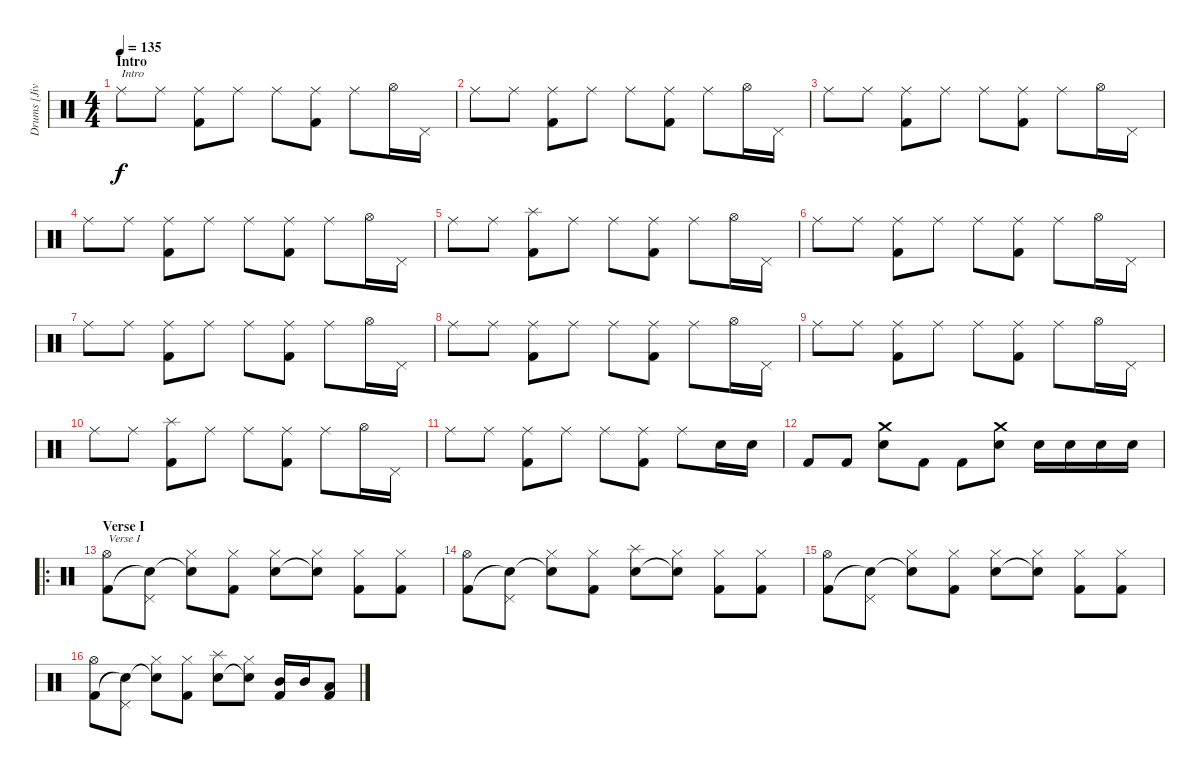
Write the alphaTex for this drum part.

\track ("Drums [Jivarp]" "Drums [Jiv") {instrument percussion}
\staff {score}
\articulation defaults
\ts (4 4)
\section ("" "Intro")
\tempo 135
\clef neutral
\ks c "Ride (middle)".8{txt "Intro" dy f} "Ride (middle)".8
("Ride (middle)" "Kick (hit) 2").8 "Ride (middle)".8 "Ride (middle)".8 ("Ride (middle)" "Kick (hit) 2").8 "Ride (middle)".8 "Hi-Hat (open)".16 "Pedal Hi-Hat (hit)".16 |
"Ride (middle)".8 "Ride (middle)".8 ("Ride (middle)" "Kick (hit) 2").8 "Ride (middle)".8 "Ride (middle)".8 ("Ride (middle)" "Kick (hit) 2").8 "Ride (middle)".8 "Hi-Hat (open)".16 "Pedal Hi-Hat (hit)".16 |
"Ride (middle)".8 "Ride (middle)".8 ("Ride (middle)" "Kick (hit) 2").8 "Ride (middle)".8 "Ride (middle)".8 ("Ride (middle)" "Kick (hit) 2").8 "Ride (middle)".8 "Hi-Hat (open)".16 "Pedal Hi-Hat (hit)".16 |
"Ride (middle)".8 "Ride (middle)".8 ("Ride (middle)" "Kick (hit) 2").8 "Ride (middle)".8 "Ride (middle)".8 ("Ride (middle)" "Kick (hit) 2").8 "Ride (middle)".8 "Hi-Hat (open)".16 "Pedal Hi-Hat (hit)".16 |
"Ride (middle)".8 "Ride (middle)".8 ("Splash (hit)" "Kick (hit) 2").8 "Ride (middle)".8 "Ride (middle)".8 ("Ride (middle)" "Kick (hit) 2").8 "Ride (middle)".8 "Hi-Hat (open)".16 "Pedal Hi-Hat (hit)".16 |
"Ride (middle)".8 "Ride (middle)".8 ("Ride (middle)" "Kick (hit) 2").8 "Ride (middle)".8 "Ride (middle)".8 ("Ride (middle)" "Kick (hit) 2").8 "Ride (middle)".8 "Hi-Hat (open)".16 "Pedal Hi-Hat (hit)".16 |
"Ride (middle)".8 "Ride (middle)".8 ("Ride (middle)" "Kick (hit) 2").8 "Ride (middle)".8 "Ride (middle)".8 ("Ride (middle)" "Kick (hit) 2").8 "Ride (middle)".8 "Hi-Hat (open)".16 "Pedal Hi-Hat (hit)".16 |
"Ride (middle)".8 "Ride (middle)".8 ("Ride (middle)" "Kick (hit) 2").8 "Ride (middle)".8 "Ride (middle)".8 ("Ride (middle)" "Kick (hit) 2").8 "Ride (middle)".8 "Hi-Hat (open)".16 "Pedal Hi-Hat (hit)".16 |
"Ride (middle)".8 "Ride (middle)".8 ("Ride (middle)" "Kick (hit) 2").8 "Ride (middle)".8 "Ride (middle)".8 ("Ride (middle)" "Kick (hit) 2").8 "Ride (middle)".8 "Hi-Hat (open)".16 "Pedal Hi-Hat (hit)".16 |
"Ride (middle)".8 "Ride (middle)".8 ("Splash (hit)" "Kick (hit) 2").8 "Ride (middle)".8 "Ride (middle)".8 ("Ride (middle)" "Kick (hit) 2").8 "Ride (middle)".8 "Hi-Hat (open)".16 "Pedal Hi-Hat (hit)".16 |
"Ride (middle)".8 "Ride (middle)".8 ("Ride (middle)" "Kick (hit) 2").8 "Ride (middle)".8 "Ride (middle)".8 ("Ride (middle)" "Kick (hit) 2").8 "Ride (middle)".8 "Electric Snare (hit)".16 "Electric Snare (hit)".16 |
"Kick (hit) 2".8 "Kick (hit) 2".8 ("Crash medium (hit)" "Electric Snare (hit)").8 "Kick (hit) 2".8 "Kick (hit) 2".8 ("Crash medium (hit)" "Electric Snare (hit)").8 "Electric Snare (hit)".16 "Electric Snare (hit)".16 "Electric Snare (hit)".16 "Electric Snare (hit)".16 |
\ro
\section ("" "Verse I")
("Hi-Hat (open)" "Kick (hit) 2").8{txt "Verse I"} ("Pedal Hi-Hat (hit)" "Snare (hit)"{t}).8 ("Hi-Hat (closed)" "Snare (hit)"{t}).8 ("Hi-Hat (closed)" "Kick (hit) 2").8 ("Hi-Hat (closed)" "Electric Snare (hit)").8 ("Hi-Hat (closed)" "Snare (hit)"{t}).8 ("Hi-Hat (closed)" "Kick (hit) 2").8 ("Hi-Hat (closed)" "Kick (hit) 2").8 |
("Hi-Hat (open)" "Kick (hit) 2").8 ("Pedal Hi-Hat (hit)" "Snare (hit)"{t}).8 ("Hi-Hat (closed)" "Snare (hit)"{t}).8 ("Hi-Hat (closed)" "Kick (hit) 2").8 ("Splash (hit)" "Electric Snare (hit)").8 ("Hi-Hat (closed)" "Snare (hit)"{t}).8 ("Hi-Hat (closed)" "Kick (hit) 2").8 ("Hi-Hat (closed)" "Kick (hit) 2").8 |
("Hi-Hat (open)" "Kick (hit) 2").8 ("Pedal Hi-Hat (hit)" "Snare (hit)"{t}).8 ("Hi-Hat (closed)" "Snare (hit)"{t}).8 ("Hi-Hat (closed)" "Kick (hit) 2").8 ("Hi-Hat (closed)" "Electric Snare (hit)").8 ("Hi-Hat (closed)" "Snare (hit)"{t}).8 ("Hi-Hat (closed)" "Kick (hit) 2").8 ("Hi-Hat (closed)" "Kick (hit) 2").8 |
("Hi-Hat (open)" "Kick (hit) 2").8 ("Pedal Hi-Hat (hit)" "Snare (hit)"{t}).8 ("Hi-Hat (closed)" "Snare (hit)"{t}).8 ("Hi-Hat (closed)" "Kick (hit) 2").8 ("Splash (hit)" "Electric Snare (hit)").8 ("Hi-Hat (closed)" "Snare (hit)"{t}).8 ("Mid Tom (hit)" "Kick (hit) 2").16 "Mid Tom (hit)".16 ("Low Tom (hit)" "Kick (hit) 2").8
